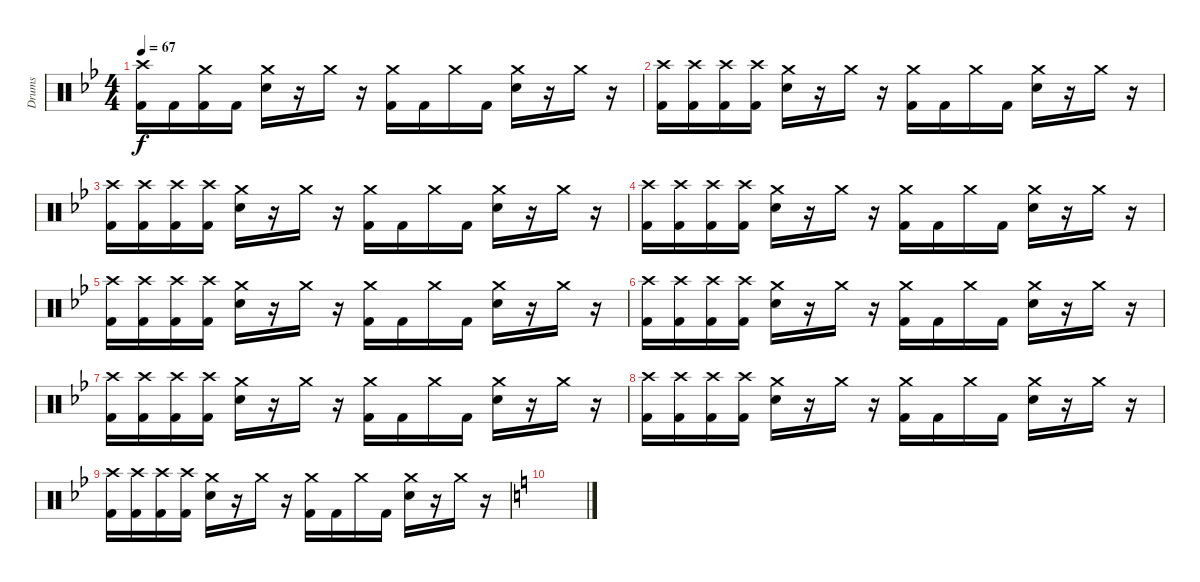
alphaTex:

\track ("Drums" "Drums") {instrument percussion}
\staff {score}
\articulation defaults
\ts (4 4)
\tempo 67
\clef neutral
\ks bb
("Crash high (hit)" "Kick (hit) 2").16{dy f} "Kick (hit) 2".16 ("Crash medium (hit)" "Kick (hit) 2").16 "Kick (hit) 2".16 ("Crash medium (hit)" "Electric Snare (hit)").16 r.16 "Crash medium (hit)".16 r.16 ("Crash medium (hit)" "Kick (hit) 2").16 "Kick (hit) 2".16 "Crash medium (hit)".16 "Kick (hit) 2".16 ("Crash medium (hit)" "Electric Snare (hit)").16 r.16 "Crash medium (hit)".16 r.16 |
("Crash high (hit)" "Kick (hit) 2").16 ("Crash high (hit)" "Kick (hit) 2").16 ("Crash high (hit)" "Kick (hit) 2").16 ("Crash high (hit)" "Kick (hit) 2").16 ("Crash medium (hit)" "Electric Snare (hit)").16 r.16 "Crash medium (hit)".16 r.16 ("Crash medium (hit)" "Kick (hit) 2").16 "Kick (hit) 2".16 "Crash medium (hit)".16 "Kick (hit) 2".16 ("Crash medium (hit)" "Electric Snare (hit)").16 r.16 "Crash medium (hit)".16 r.16 |
("Crash high (hit)" "Kick (hit) 2").16 ("Crash high (hit)" "Kick (hit) 2").16 ("Crash high (hit)" "Kick (hit) 2").16 ("Crash high (hit)" "Kick (hit) 2").16 ("Crash medium (hit)" "Electric Snare (hit)").16 r.16 "Crash medium (hit)".16 r.16 ("Crash medium (hit)" "Kick (hit) 2").16 "Kick (hit) 2".16 "Crash medium (hit)".16 "Kick (hit) 2".16 ("Crash medium (hit)" "Electric Snare (hit)").16 r.16 "Crash medium (hit)".16 r.16 |
("Crash high (hit)" "Kick (hit) 2").16 ("Crash high (hit)" "Kick (hit) 2").16 ("Crash high (hit)" "Kick (hit) 2").16 ("Crash high (hit)" "Kick (hit) 2").16 ("Crash medium (hit)" "Electric Snare (hit)").16 r.16 "Crash medium (hit)".16 r.16 ("Crash medium (hit)" "Kick (hit) 2").16 "Kick (hit) 2".16 "Crash medium (hit)".16 "Kick (hit) 2".16 ("Crash medium (hit)" "Electric Snare (hit)").16 r.16 "Crash medium (hit)".16 r.16 |
("Crash high (hit)" "Kick (hit) 2").16 ("Crash high (hit)" "Kick (hit) 2").16 ("Crash high (hit)" "Kick (hit) 2").16 ("Crash high (hit)" "Kick (hit) 2").16 ("Crash medium (hit)" "Electric Snare (hit)").16 r.16 "Crash medium (hit)".16 r.16 ("Crash medium (hit)" "Kick (hit) 2").16 "Kick (hit) 2".16 "Crash medium (hit)".16 "Kick (hit) 2".16 ("Crash medium (hit)" "Electric Snare (hit)").16 r.16 "Crash medium (hit)".16 r.16 |
("Crash high (hit)" "Kick (hit) 2").16{volume 5} ("Crash high (hit)" "Kick (hit) 2").16 ("Crash high (hit)" "Kick (hit) 2").16 ("Crash high (hit)" "Kick (hit) 2").16 ("Crash medium (hit)" "Electric Snare (hit)").16 r.16 "Crash medium (hit)".16 r.16 ("Crash medium (hit)" "Kick (hit) 2").16 "Kick (hit) 2".16 "Crash medium (hit)".16 "Kick (hit) 2".16 ("Crash medium (hit)" "Electric Snare (hit)").16 r.16 "Crash medium (hit)".16 r.16 |
("Crash high (hit)" "Kick (hit) 2").16 ("Crash high (hit)" "Kick (hit) 2").16 ("Crash high (hit)" "Kick (hit) 2").16 ("Crash high (hit)" "Kick (hit) 2").16 ("Crash medium (hit)" "Electric Snare (hit)").16 r.16 "Crash medium (hit)".16 r.16 ("Crash medium (hit)" "Kick (hit) 2").16 "Kick (hit) 2".16 "Crash medium (hit)".16 "Kick (hit) 2".16 ("Crash medium (hit)" "Electric Snare (hit)").16 r.16 "Crash medium (hit)".16 r.16 |
("Crash high (hit)" "Kick (hit) 2").16 ("Crash high (hit)" "Kick (hit) 2").16 ("Crash high (hit)" "Kick (hit) 2").16 ("Crash high (hit)" "Kick (hit) 2").16 ("Crash medium (hit)" "Electric Snare (hit)").16 r.16 "Crash medium (hit)".16 r.16 ("Crash medium (hit)" "Kick (hit) 2").16 "Kick (hit) 2".16 "Crash medium (hit)".16 "Kick (hit) 2".16 ("Crash medium (hit)" "Electric Snare (hit)").16 r.16 "Crash medium (hit)".16 r.16 |
("Crash high (hit)" "Kick (hit) 2").16 ("Crash high (hit)" "Kick (hit) 2").16 ("Crash high (hit)" "Kick (hit) 2").16 ("Crash high (hit)" "Kick (hit) 2").16 ("Crash medium (hit)" "Electric Snare (hit)").16 r.16 "Crash medium (hit)".16 r.16 ("Crash medium (hit)" "Kick (hit) 2").16 "Kick (hit) 2".16 "Crash medium (hit)".16 "Kick (hit) 2".16 ("Crash medium (hit)" "Electric Snare (hit)").16 r.16 "Crash medium (hit)".16 r.16 |
\ks c
